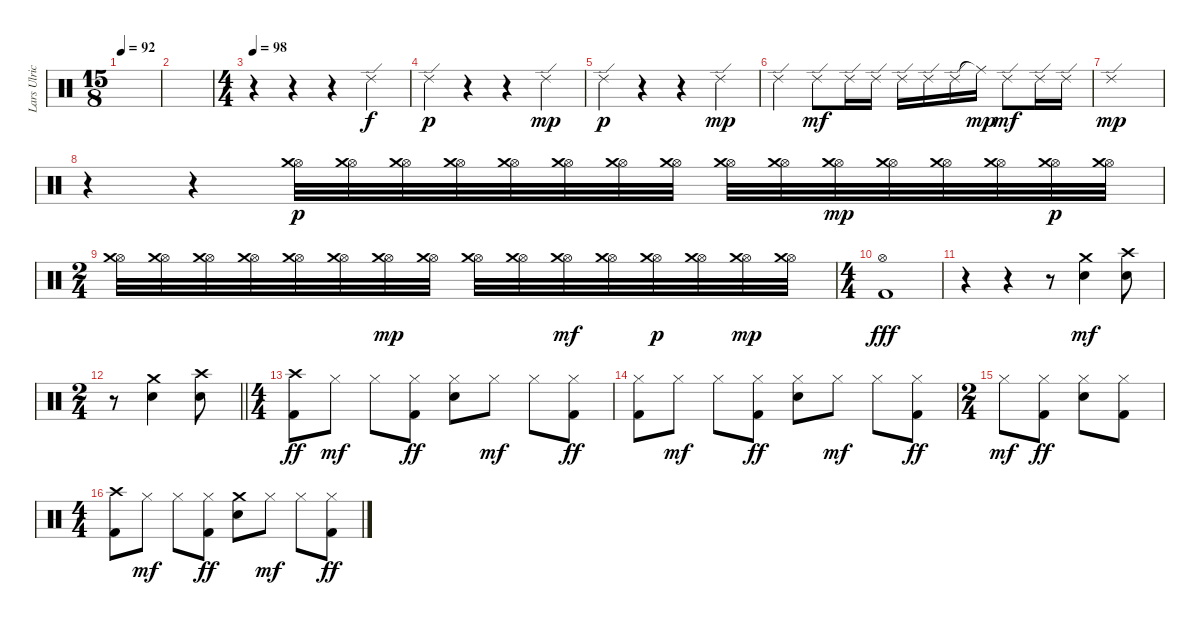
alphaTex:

\track ("Lars Ulrich" "Lars Ulric") {instrument percussion}
\staff {score}
\articulation defaults
\ts (15 8)
\tempo 92
\clef neutral
\ks c
|
|
\ts (4 4)
\tempo 98
r.4 r.4 r.4 "Ride (edge) 2".4 |
"Ride (edge) 2".4{dy p} r.4 r.4 "Ride (edge) 2".4{dy mp} |
"Ride (edge) 2".4{dy p} r.4 r.4 "Ride (edge) 2".4{dy mp} |
"Ride (edge) 2".4 "Ride (edge) 2".8{dy mf} "Ride (edge) 2".16 "Ride (edge) 2".16 "Ride (edge) 2".16 "Ride (edge) 2".16 "Ride (edge) 2".16 "Ride (middle)"{t}.16{dy mp} "Ride (edge) 2".8{dy mf} "Ride (edge) 2".16 "Ride (edge) 2".16 |
"Ride (edge) 2".1{dy mp} |
r.4 r.4 ("Hi-Hat (open)" "Crash medium (hit)").32{dy p} ("Hi-Hat (open)" "Crash medium (hit)").32 ("Hi-Hat (open)" "Crash medium (hit)").32 ("Hi-Hat (open)" "Crash medium (hit)").32 ("Hi-Hat (open)" "Crash medium (hit)").32 ("Hi-Hat (open)" "Crash medium (hit)").32 ("Hi-Hat (open)" "Crash medium (hit)").32 ("Hi-Hat (open)" "Crash medium (hit)").32 ("Hi-Hat (open)" "Crash medium (hit)").32 ("Hi-Hat (open)" "Crash medium (hit)").32 ("Hi-Hat (open)" "Crash medium (hit)").32{dy mp} ("Hi-Hat (open)" "Crash medium (hit)").32 ("Hi-Hat (open)" "Crash medium (hit)").32 ("Hi-Hat (open)" "Crash medium (hit)").32 ("Hi-Hat (open)" "Crash medium (hit)").32{dy p} ("Hi-Hat (open)" "Crash medium (hit)").32 |
\ts (2 4)
("Hi-Hat (open)" "Crash medium (hit)").32 ("Hi-Hat (open)" "Crash medium (hit)").32 ("Hi-Hat (open)" "Crash medium (hit)").32 ("Hi-Hat (open)" "Crash medium (hit)").32 ("Hi-Hat (open)" "Crash medium (hit)").32 ("Hi-Hat (open)" "Crash medium (hit)").32 ("Hi-Hat (open)" "Crash medium (hit)").32{dy mp} ("Hi-Hat (open)" "Crash medium (hit)").32 ("Hi-Hat (open)" "Crash medium (hit)").32 ("Hi-Hat (open)" "Crash medium (hit)").32 ("Hi-Hat (open)" "Crash medium (hit)").32{dy mf} ("Hi-Hat (open)" "Crash medium (hit)").32 ("Hi-Hat (open)" "Crash medium (hit)").32{dy p} ("Hi-Hat (open)" "Crash medium (hit)").32 ("Hi-Hat (open)" "Crash medium (hit)").32{dy mp} ("Hi-Hat (open)" "Crash medium (hit)").32 |
\ts (4 4)
("Hi-Hat (open)" "Kick (hit) 2").1{dy fff} |
r.4 r.4 r.8 ("Crash medium (hit)" "Snare (hit) 2").4{dy mf} ("Crash high (hit)" "Snare (hit) 2").8 |
\ts (2 4)
\barLineRight lightlight
r.8 ("Crash medium (hit)" "Snare (hit) 2").4 ("Crash high (hit)" "Snare (hit) 2").8 |
\ts (4 4)
("Crash high (hit)" "Kick (hit) 2").8{dy ff} "Hi-Hat (closed)".8{dy mf} "Hi-Hat (closed)".8 ("Hi-Hat (closed)" "Kick (hit) 2").8{dy ff} ("Hi-Hat (closed)" "Snare (hit) 2").8 "Hi-Hat (closed)".8{dy mf} "Hi-Hat (closed)".8 ("Hi-Hat (closed)" "Kick (hit) 2").8{dy ff} |
("Hi-Hat (closed)" "Kick (hit) 2").8 "Hi-Hat (closed)".8{dy mf} "Hi-Hat (closed)".8 ("Hi-Hat (closed)" "Kick (hit) 2").8{dy ff} ("Hi-Hat (closed)" "Snare (hit) 2").8 "Hi-Hat (closed)".8{dy mf} "Hi-Hat (closed)".8 ("Hi-Hat (closed)" "Kick (hit) 2").8{dy ff} |
\ts (2 4)
"Hi-Hat (closed)".8{dy mf} ("Hi-Hat (closed)" "Kick (hit) 2").8{dy ff} ("Hi-Hat (closed)" "Snare (hit) 2").8 ("Hi-Hat (closed)" "Kick (hit) 2").8 |
\ts (4 4)
("Crash high (hit)" "Kick (hit) 2").8 "Hi-Hat (closed)".8{dy mf} "Hi-Hat (closed)".8 ("Hi-Hat (closed)" "Kick (hit) 2").8{dy ff} ("Crash medium (hit)" "Snare (hit) 2").8 "Hi-Hat (closed)".8{dy mf} "Hi-Hat (closed)".8 ("Hi-Hat (closed)" "Kick (hit) 2").8{dy ff}
